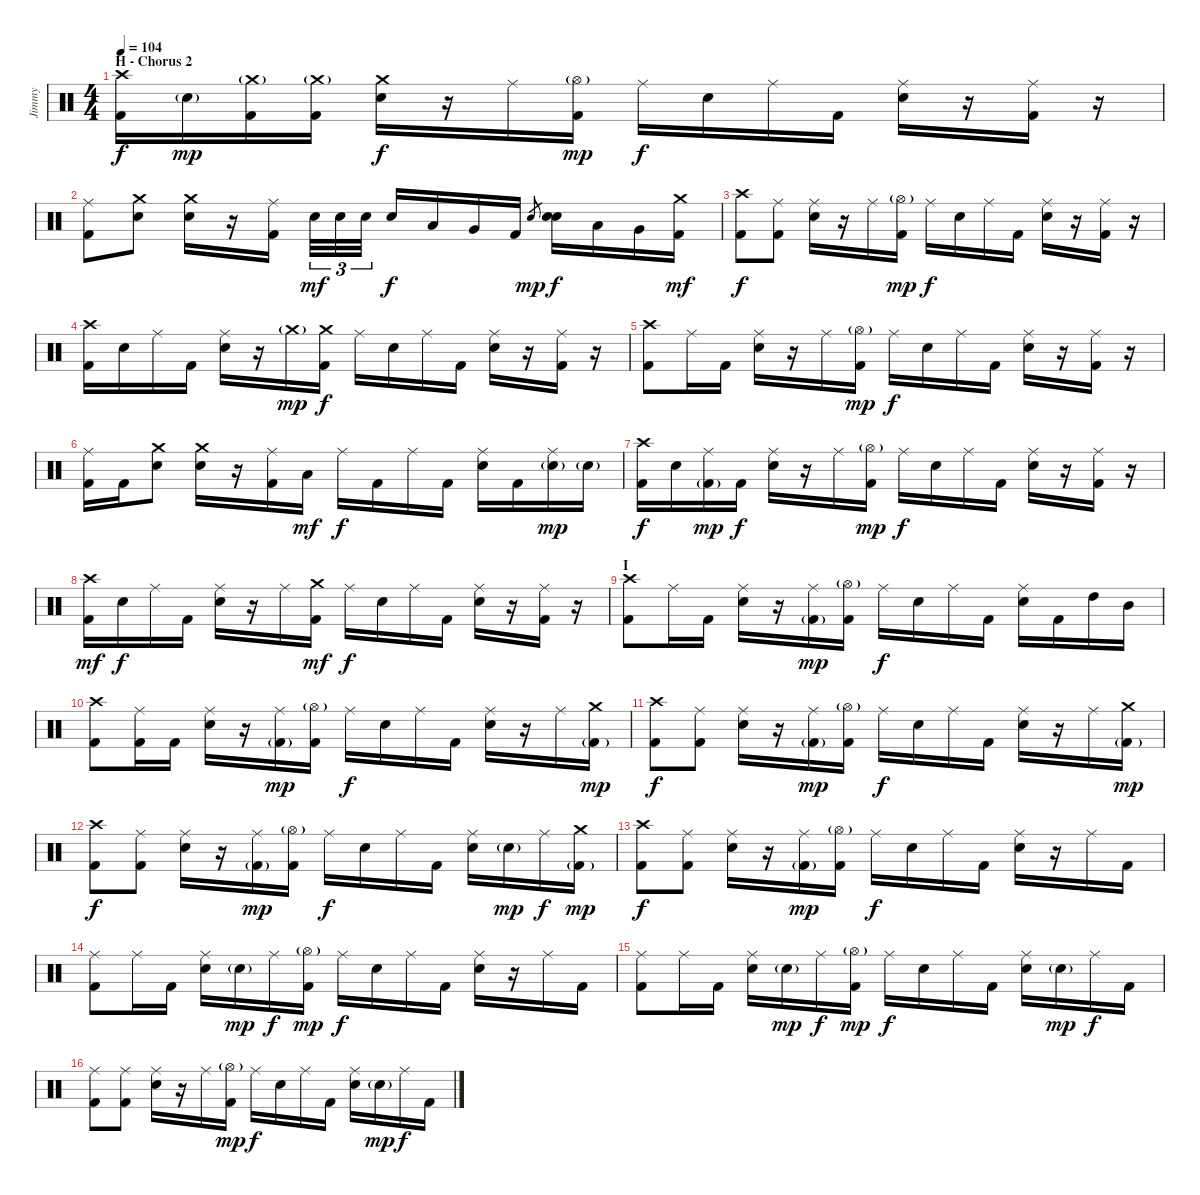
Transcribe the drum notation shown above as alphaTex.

\track ("Jimmy" "Jimmy") {instrument percussion}
\staff {score}
\articulation defaults
\ts (4 4)
\section ("" "H - Chorus 2")
\tempo 104
\clef neutral
\ks c
("Crash high (hit)" "Kick (hit) 2").16{dy f} "Electric Snare (hit)"{g}.16{dy mp} ("Crash medium (hit)"{g} "Kick (hit) 2").16 ("Crash medium (hit)"{g} "Kick (hit) 2").16 ("Crash medium (hit)" "Electric Snare (hit)").16{dy f} r.16 "Ride (middle)".16 ("Hi-Hat (open)"{g} "Kick (hit) 2").16{dy mp} "Ride (middle)".16{dy f} "Electric Snare (hit)".16 "Ride (middle)".16 "Kick (hit) 2".16 ("Ride (middle)" "Electric Snare (hit)").16 r.16 ("Ride (middle)" "Kick (hit) 2").16 r.16 |
("Ride (middle)" "Kick (hit) 2").8 ("Crash medium (hit)" "Electric Snare (hit)").8 ("Crash medium (hit)" "Electric Snare (hit)").16 r.16 ("Ride (middle)" "Kick (hit) 2").16 "Electric Snare (hit)".32{tu (3 2) dy mf} "Electric Snare (hit)".32{tu (3 2)} "Electric Snare (hit)".32{tu (3 2)} "Electric Snare (hit)".16{dy f} "Low Tom (hit)".16 "Very Low Tom (hit)".16 "Kick (hit) 2".16 "Electric Snare (hit)".8{gr dy mp} ("Electric Snare (hit)" "Electric Snare (hit)").16{dy f} "Low Tom (hit)".16 "Very Low Tom (hit)".16 ("Crash medium (hit)" "Kick (hit) 2").16{dy mf} |
("Crash high (hit)" "Kick (hit) 2").8{dy f} ("Ride (middle)" "Kick (hit) 2").8 ("Ride (middle)" "Electric Snare (hit)").16 r.16 "Ride (middle)".16 ("Hi-Hat (open)"{g} "Kick (hit) 2").16{dy mp} "Ride (middle)".16{dy f} "Electric Snare (hit)".16 "Ride (middle)".16 "Kick (hit) 2".16 ("Ride (middle)" "Electric Snare (hit)").16 r.16 ("Ride (middle)" "Kick (hit) 2").16 r.16 |
("Crash high (hit)" "Kick (hit) 2").16 "Electric Snare (hit)".16 "Ride (middle)".16 "Kick (hit) 2".16 ("Ride (middle)" "Electric Snare (hit)").16 r.16 "Crash medium (hit)"{g}.16{dy mp} ("Crash medium (hit)" "Kick (hit) 2").16{dy f} "Ride (middle)".16 "Electric Snare (hit)".16 "Ride (middle)".16 "Kick (hit) 2".16 ("Ride (middle)" "Electric Snare (hit)").16 r.16 ("Ride (middle)" "Kick (hit) 2").16 r.16 |
("Crash high (hit)" "Kick (hit) 2").8 "Ride (middle)".16 "Kick (hit) 2".16 ("Ride (middle)" "Electric Snare (hit)").16 r.16 "Ride (middle)".16 ("Hi-Hat (open)"{g} "Kick (hit) 2").16{dy mp} "Ride (middle)".16{dy f} "Electric Snare (hit)".16 "Ride (middle)".16 "Kick (hit) 2".16 ("Ride (middle)" "Electric Snare (hit)").16 r.16 ("Ride (middle)" "Kick (hit) 2").16 r.16 |
("Ride (middle)" "Kick (hit) 2").16 "Kick (hit) 2".16 ("Crash medium (hit)" "Electric Snare (hit)").8 ("Crash medium (hit)" "Electric Snare (hit)").16 r.16 ("Ride (middle)" "Kick (hit) 2").16 "Low Tom (hit)".16{dy mf} "Ride (middle)".16{dy f} "Kick (hit) 2".16 "Ride (middle)".16 "Kick (hit) 2".16 ("Ride (middle)" "Electric Snare (hit)").16 "Kick (hit) 2".16 ("Ride (middle)" "Electric Snare (hit)"{g}).16{dy mp} "Electric Snare (hit)"{g}.16 |
("Crash high (hit)" "Kick (hit) 2").16{dy f} "Electric Snare (hit)".16 ("Ride (middle)" "Kick (hit) 2"{g}).16{dy mp} "Kick (hit) 2".16{dy f} ("Ride (middle)" "Electric Snare (hit)").16 r.16 "Ride (middle)".16 ("Hi-Hat (open)"{g} "Kick (hit) 2").16{dy mp} "Ride (middle)".16{dy f} "Electric Snare (hit)".16 "Ride (middle)".16 "Kick (hit) 2".16 ("Ride (middle)" "Electric Snare (hit)").16 r.16 ("Ride (middle)" "Kick (hit) 2").16 r.16 |
("Crash high (hit)" "Kick (hit) 2").16{dy mf} "Electric Snare (hit)".16{dy f} "Ride (middle)".16 "Kick (hit) 2".16 ("Ride (middle)" "Electric Snare (hit)").16 r.16 "Ride (middle)".16 ("Crash medium (hit)" "Kick (hit) 2").16{dy mf} "Ride (middle)".16{dy f} "Electric Snare (hit)".16 "Ride (middle)".16 "Kick (hit) 2".16 ("Ride (middle)" "Electric Snare (hit)").16 r.16 ("Ride (middle)" "Kick (hit) 2").16 r.16 |
\section ("" "I")
("Crash high (hit)" "Kick (hit) 2").8 "Ride (middle)".16 "Kick (hit) 2".16 ("Ride (middle)" "Electric Snare (hit)").16 r.16 ("Ride (middle)" "Kick (hit) 2"{g}).16{dy mp} ("Hi-Hat (open)"{g} "Kick (hit) 2").16 "Ride (middle)".16{dy f} "Electric Snare (hit)".16 "Ride (middle)".16 "Kick (hit) 2".16 ("Ride (middle)" "Electric Snare (hit)").16 "Kick (hit) 2".16 "High Tom (hit)".16 "Mid Tom (hit)".16 |
("Crash high (hit)" "Kick (hit) 2").8 ("Ride (middle)" "Kick (hit) 2").16 "Kick (hit) 2".16 ("Ride (middle)" "Electric Snare (hit)").16 r.16 ("Ride (middle)" "Kick (hit) 2"{g}).16{dy mp} ("Hi-Hat (open)"{g} "Kick (hit) 2").16 "Ride (middle)".16{dy f} "Electric Snare (hit)".16 "Ride (middle)".16 "Kick (hit) 2".16 ("Ride (middle)" "Electric Snare (hit)").16 r.16 "Ride (middle)".16 ("Crash medium (hit)" "Kick (hit) 2"{g}).16{dy mp} |
("Crash high (hit)" "Kick (hit) 2").8{dy f} ("Ride (middle)" "Kick (hit) 2").8 ("Ride (middle)" "Electric Snare (hit)").16 r.16 ("Ride (middle)" "Kick (hit) 2"{g}).16{dy mp} ("Hi-Hat (open)"{g} "Kick (hit) 2").16 "Ride (middle)".16{dy f} "Electric Snare (hit)".16 "Ride (middle)".16 "Kick (hit) 2".16 ("Ride (middle)" "Electric Snare (hit)").16 r.16 "Ride (middle)".16 ("Crash medium (hit)" "Kick (hit) 2"{g}).16{dy mp} |
("Crash high (hit)" "Kick (hit) 2").8{dy f} ("Ride (middle)" "Kick (hit) 2").8 ("Ride (middle)" "Electric Snare (hit)").16 r.16 ("Ride (middle)" "Kick (hit) 2"{g}).16{dy mp} ("Hi-Hat (open)"{g} "Kick (hit) 2").16 "Ride (middle)".16{dy f} "Electric Snare (hit)".16 "Ride (middle)".16 "Kick (hit) 2".16 ("Ride (middle)" "Electric Snare (hit)").16 "Electric Snare (hit)"{g}.16{dy mp} "Ride (middle)".16{dy f} ("Crash medium (hit)" "Kick (hit) 2"{g}).16{dy mp} |
("Crash high (hit)" "Kick (hit) 2").8{dy f} ("Ride (middle)" "Kick (hit) 2").8 ("Ride (middle)" "Electric Snare (hit)").16 r.16 ("Ride (middle)" "Kick (hit) 2"{g}).16{dy mp} ("Hi-Hat (open)"{g} "Kick (hit) 2").16 "Ride (middle)".16{dy f} "Electric Snare (hit)".16 "Ride (middle)".16 "Kick (hit) 2".16 ("Ride (middle)" "Electric Snare (hit)").16 r.16 "Ride (middle)".16 "Kick (hit) 2".16 |
("Ride (middle)" "Kick (hit) 2").8 "Ride (middle)".16 "Kick (hit) 2".16 ("Ride (middle)" "Electric Snare (hit)").16 "Electric Snare (hit)"{g}.16{dy mp} "Ride (middle)".16{dy f} ("Hi-Hat (open)"{g} "Kick (hit) 2").16{dy mp} "Ride (middle)".16{dy f} "Electric Snare (hit)".16 "Ride (middle)".16 "Kick (hit) 2".16 ("Ride (middle)" "Electric Snare (hit)").16 r.16 "Ride (middle)".16 "Kick (hit) 2".16 |
("Ride (middle)" "Kick (hit) 2").8 "Ride (middle)".16 "Kick (hit) 2".16 ("Ride (middle)" "Electric Snare (hit)").16 "Electric Snare (hit)"{g}.16{dy mp} "Ride (middle)".16{dy f} ("Hi-Hat (open)"{g} "Kick (hit) 2").16{dy mp} "Ride (middle)".16{dy f} "Electric Snare (hit)".16 "Ride (middle)".16 "Kick (hit) 2".16 ("Ride (middle)" "Electric Snare (hit)").16 "Electric Snare (hit)"{g}.16{dy mp} "Ride (middle)".16{dy f} "Kick (hit) 2".16 |
("Ride (middle)" "Kick (hit) 2").8 ("Ride (middle)" "Kick (hit) 2").8 ("Ride (middle)" "Electric Snare (hit)").16 r.16 "Ride (middle)".16 ("Hi-Hat (open)"{g} "Kick (hit) 2").16{dy mp} "Ride (middle)".16{dy f} "Electric Snare (hit)".16 "Ride (middle)".16 "Kick (hit) 2".16 ("Ride (middle)" "Electric Snare (hit)").16 "Electric Snare (hit)"{g}.16{dy mp} "Ride (middle)".16{dy f} "Kick (hit) 2".16
